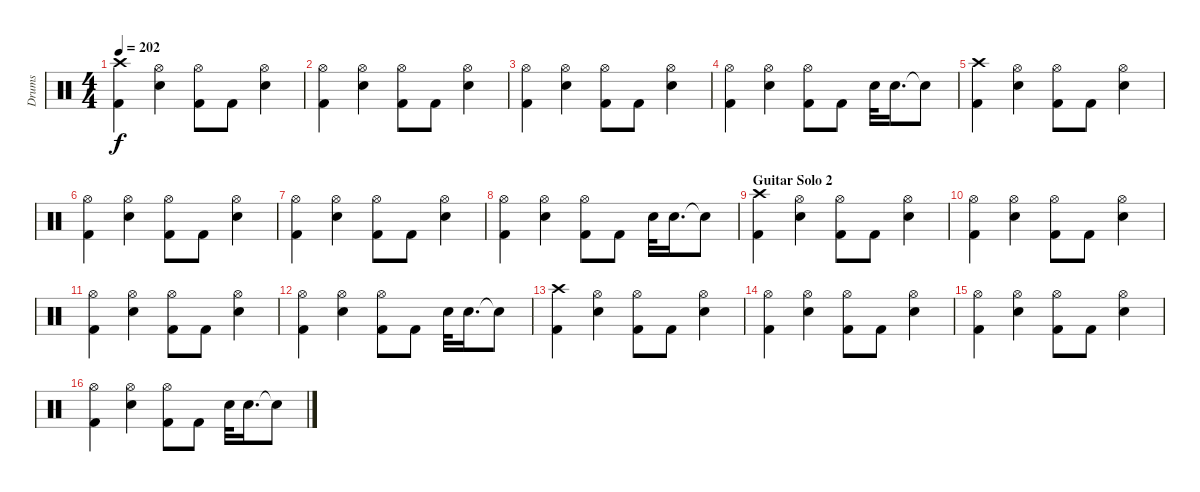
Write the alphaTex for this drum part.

\track ("Drums" "Drums") {instrument percussion}
\staff {score}
\articulation defaults
\ts (4 4)
\tempo 202
\clef neutral
\ks c
("Crash high (hit)" "Kick (hit) 2").4{dy f} ("Hi-Hat (open)" "Electric Snare (hit)").4 ("Hi-Hat (open)" "Kick (hit) 2").8 "Kick (hit) 2".8 ("Hi-Hat (open)" "Electric Snare (hit)").4 |
("Hi-Hat (open)" "Kick (hit) 2").4 ("Hi-Hat (open)" "Electric Snare (hit)").4 ("Hi-Hat (open)" "Kick (hit) 2").8 "Kick (hit) 2".8 ("Hi-Hat (open)" "Electric Snare (hit)").4 |
("Hi-Hat (open)" "Kick (hit) 2").4 ("Hi-Hat (open)" "Electric Snare (hit)").4 ("Hi-Hat (open)" "Kick (hit) 2").8 "Kick (hit) 2".8 ("Hi-Hat (open)" "Electric Snare (hit)").4 |
("Hi-Hat (open)" "Kick (hit) 2").4 ("Hi-Hat (open)" "Electric Snare (hit)").4 ("Hi-Hat (open)" "Kick (hit) 2").8 "Kick (hit) 2".8 "Electric Snare (hit)".32 "Electric Snare (hit)".16{d} "Electric Snare (hit)"{t}.8 |
("Crash high (hit)" "Kick (hit) 2").4 ("Hi-Hat (open)" "Electric Snare (hit)").4 ("Hi-Hat (open)" "Kick (hit) 2").8 "Kick (hit) 2".8 ("Hi-Hat (open)" "Electric Snare (hit)").4 |
("Hi-Hat (open)" "Kick (hit) 2").4 ("Hi-Hat (open)" "Electric Snare (hit)").4 ("Hi-Hat (open)" "Kick (hit) 2").8 "Kick (hit) 2".8 ("Hi-Hat (open)" "Electric Snare (hit)").4 |
("Hi-Hat (open)" "Kick (hit) 2").4 ("Hi-Hat (open)" "Electric Snare (hit)").4 ("Hi-Hat (open)" "Kick (hit) 2").8 "Kick (hit) 2".8 ("Hi-Hat (open)" "Electric Snare (hit)").4 |
("Hi-Hat (open)" "Kick (hit) 2").4 ("Hi-Hat (open)" "Electric Snare (hit)").4 ("Hi-Hat (open)" "Kick (hit) 2").8 "Kick (hit) 2".8 "Electric Snare (hit)".32 "Electric Snare (hit)".16{d} "Electric Snare (hit)"{t}.8 |
\section ("" "Guitar Solo 2")
("Crash high (hit)" "Kick (hit) 2").4 ("Hi-Hat (open)" "Electric Snare (hit)").4 ("Hi-Hat (open)" "Kick (hit) 2").8 "Kick (hit) 2".8 ("Hi-Hat (open)" "Electric Snare (hit)").4 |
("Hi-Hat (open)" "Kick (hit) 2").4 ("Hi-Hat (open)" "Electric Snare (hit)").4 ("Hi-Hat (open)" "Kick (hit) 2").8 "Kick (hit) 2".8 ("Hi-Hat (open)" "Electric Snare (hit)").4 |
("Hi-Hat (open)" "Kick (hit) 2").4 ("Hi-Hat (open)" "Electric Snare (hit)").4 ("Hi-Hat (open)" "Kick (hit) 2").8 "Kick (hit) 2".8 ("Hi-Hat (open)" "Electric Snare (hit)").4 |
("Hi-Hat (open)" "Kick (hit) 2").4 ("Hi-Hat (open)" "Electric Snare (hit)").4 ("Hi-Hat (open)" "Kick (hit) 2").8 "Kick (hit) 2".8 "Electric Snare (hit)".32 "Electric Snare (hit)".16{d} "Electric Snare (hit)"{t}.8 |
("Crash high (hit)" "Kick (hit) 2").4 ("Hi-Hat (open)" "Electric Snare (hit)").4 ("Hi-Hat (open)" "Kick (hit) 2").8 "Kick (hit) 2".8 ("Hi-Hat (open)" "Electric Snare (hit)").4 |
("Hi-Hat (open)" "Kick (hit) 2").4 ("Hi-Hat (open)" "Electric Snare (hit)").4 ("Hi-Hat (open)" "Kick (hit) 2").8 "Kick (hit) 2".8 ("Hi-Hat (open)" "Electric Snare (hit)").4 |
("Hi-Hat (open)" "Kick (hit) 2").4 ("Hi-Hat (open)" "Electric Snare (hit)").4 ("Hi-Hat (open)" "Kick (hit) 2").8 "Kick (hit) 2".8 ("Hi-Hat (open)" "Electric Snare (hit)").4 |
("Hi-Hat (open)" "Kick (hit) 2").4 ("Hi-Hat (open)" "Electric Snare (hit)").4 ("Hi-Hat (open)" "Kick (hit) 2").8 "Kick (hit) 2".8 "Electric Snare (hit)".32 "Electric Snare (hit)".16{d} "Electric Snare (hit)"{t}.8
